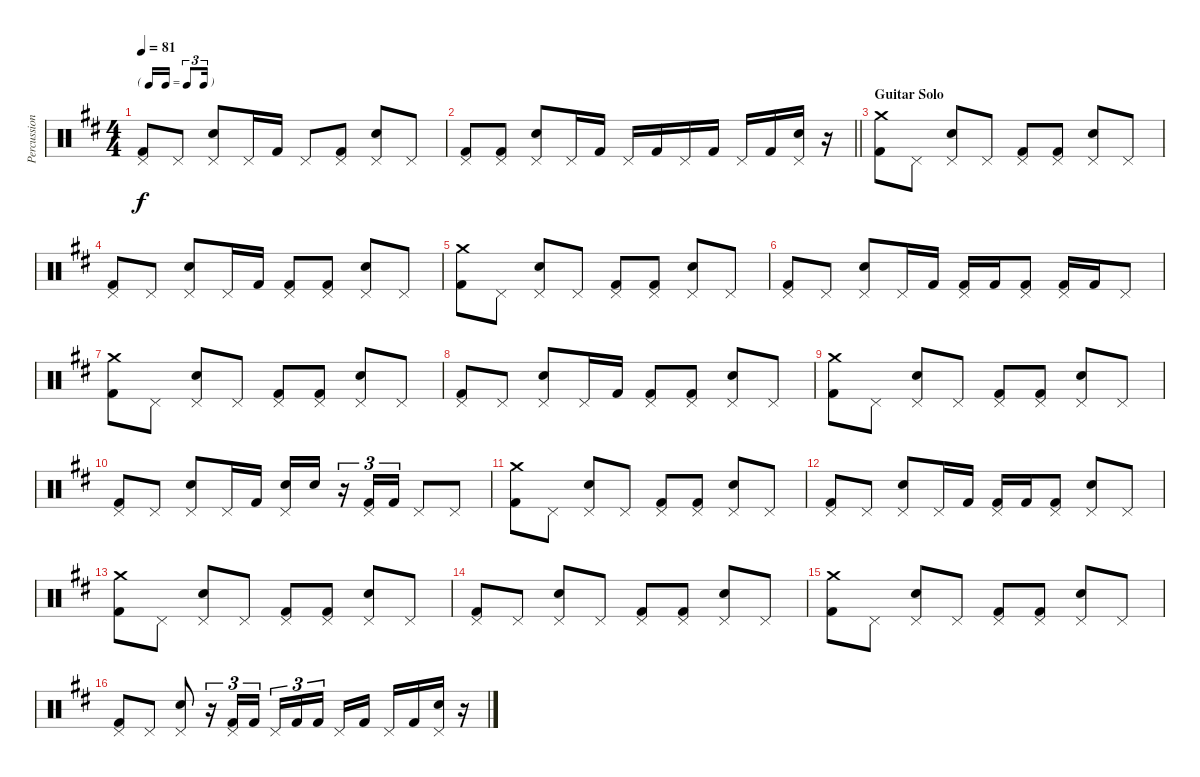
\track ("Percussion" "Percussion") {instrument percussion}
\staff {score}
\articulation defaults
\ts (4 4)
\tf triplet16th
\tempo 81
\clef neutral
\ks d
("Pedal Hi-Hat (hit)" "Kick (hit) 2").8{dy f} "Pedal Hi-Hat (hit)".8 ("Pedal Hi-Hat (hit)" "Snare (hit) 2").8 "Pedal Hi-Hat (hit)".16 "Kick (hit) 2".16 "Pedal Hi-Hat (hit)".8 ("Pedal Hi-Hat (hit)" "Kick (hit) 2").8 ("Pedal Hi-Hat (hit)" "Snare (hit) 2").8 "Pedal Hi-Hat (hit)".8 |
\barLineRight lightlight
("Pedal Hi-Hat (hit)" "Kick (hit) 2").8 ("Pedal Hi-Hat (hit)" "Kick (hit) 2").8 ("Pedal Hi-Hat (hit)" "Snare (hit) 2").8 "Pedal Hi-Hat (hit)".16 "Kick (hit) 2".16 "Pedal Hi-Hat (hit)".16 "Kick (hit) 2".16 "Pedal Hi-Hat (hit)".16 "Kick (hit) 2".16 "Pedal Hi-Hat (hit)".16 "Kick (hit) 2".16 ("Pedal Hi-Hat (hit)" "Snare (hit) 2").16 r.16 |
\section ("" "Guitar Solo")
("Crash medium (hit)" "Kick (hit) 2").8 "Pedal Hi-Hat (hit)".8 ("Pedal Hi-Hat (hit)" "Snare (hit) 2").8 "Pedal Hi-Hat (hit)".8 ("Pedal Hi-Hat (hit)" "Kick (hit) 2").8 ("Pedal Hi-Hat (hit)" "Kick (hit) 2").8 ("Pedal Hi-Hat (hit)" "Snare (hit) 2").8 "Pedal Hi-Hat (hit)".8 |
("Pedal Hi-Hat (hit)" "Kick (hit) 2").8 "Pedal Hi-Hat (hit)".8 ("Pedal Hi-Hat (hit)" "Snare (hit) 2").8 "Pedal Hi-Hat (hit)".16 "Kick (hit) 2".16 ("Pedal Hi-Hat (hit)" "Kick (hit) 2").8 ("Pedal Hi-Hat (hit)" "Kick (hit) 2").8 ("Pedal Hi-Hat (hit)" "Snare (hit) 2").8 "Pedal Hi-Hat (hit)".8 |
("Crash medium (hit)" "Kick (hit) 2").8 "Pedal Hi-Hat (hit)".8 ("Pedal Hi-Hat (hit)" "Snare (hit) 2").8 "Pedal Hi-Hat (hit)".8 ("Pedal Hi-Hat (hit)" "Kick (hit) 2").8 ("Pedal Hi-Hat (hit)" "Kick (hit) 2").8 ("Pedal Hi-Hat (hit)" "Snare (hit) 2").8 "Pedal Hi-Hat (hit)".8 |
("Pedal Hi-Hat (hit)" "Kick (hit) 2").8 "Pedal Hi-Hat (hit)".8 ("Pedal Hi-Hat (hit)" "Snare (hit) 2").8 "Pedal Hi-Hat (hit)".16 "Kick (hit) 2".16 ("Pedal Hi-Hat (hit)" "Kick (hit) 2").16 "Kick (hit) 2".16 ("Pedal Hi-Hat (hit)" "Kick (hit) 2").8 ("Pedal Hi-Hat (hit)" "Kick (hit) 2").16 "Kick (hit) 2".16 "Pedal Hi-Hat (hit)".8 |
("Crash medium (hit)" "Kick (hit) 2").8 "Pedal Hi-Hat (hit)".8 ("Pedal Hi-Hat (hit)" "Snare (hit) 2").8 "Pedal Hi-Hat (hit)".8 ("Pedal Hi-Hat (hit)" "Kick (hit) 2").8 ("Pedal Hi-Hat (hit)" "Kick (hit) 2").8 ("Pedal Hi-Hat (hit)" "Snare (hit) 2").8 "Pedal Hi-Hat (hit)".8 |
("Pedal Hi-Hat (hit)" "Kick (hit) 2").8 "Pedal Hi-Hat (hit)".8 ("Pedal Hi-Hat (hit)" "Snare (hit) 2").8 "Pedal Hi-Hat (hit)".16 "Kick (hit) 2".16 ("Pedal Hi-Hat (hit)" "Kick (hit) 2").8 ("Pedal Hi-Hat (hit)" "Kick (hit) 2").8 ("Pedal Hi-Hat (hit)" "Snare (hit) 2").8 "Pedal Hi-Hat (hit)".8 |
("Crash medium (hit)" "Kick (hit) 2").8 "Pedal Hi-Hat (hit)".8 ("Pedal Hi-Hat (hit)" "Snare (hit) 2").8 "Pedal Hi-Hat (hit)".8 ("Pedal Hi-Hat (hit)" "Kick (hit) 2").8 ("Pedal Hi-Hat (hit)" "Kick (hit) 2").8 ("Pedal Hi-Hat (hit)" "Snare (hit) 2").8 "Pedal Hi-Hat (hit)".8 |
("Pedal Hi-Hat (hit)" "Kick (hit) 2").8 "Pedal Hi-Hat (hit)".8 ("Pedal Hi-Hat (hit)" "Snare (hit) 2").8 "Pedal Hi-Hat (hit)".16 "Kick (hit) 2".16 ("Pedal Hi-Hat (hit)" "Snare (hit) 2").16 "Snare (hit) 2".16 r.16{tu (3 2)} ("Pedal Hi-Hat (hit)" "Kick (hit) 2").16{tu (3 2)} "Kick (hit) 2".16{tu (3 2)} "Pedal Hi-Hat (hit)".8 "Pedal Hi-Hat (hit)".8 |
("Crash medium (hit)" "Kick (hit) 2").8 "Pedal Hi-Hat (hit)".8 ("Pedal Hi-Hat (hit)" "Snare (hit) 2").8 "Pedal Hi-Hat (hit)".8 ("Pedal Hi-Hat (hit)" "Kick (hit) 2").8 ("Pedal Hi-Hat (hit)" "Kick (hit) 2").8 ("Pedal Hi-Hat (hit)" "Snare (hit) 2").8 "Pedal Hi-Hat (hit)".8 |
("Pedal Hi-Hat (hit)" "Kick (hit) 2").8 "Pedal Hi-Hat (hit)".8 ("Pedal Hi-Hat (hit)" "Snare (hit) 2").8 "Pedal Hi-Hat (hit)".16 "Kick (hit) 2".16 ("Pedal Hi-Hat (hit)" "Kick (hit) 2").16 "Kick (hit) 2".16 ("Pedal Hi-Hat (hit)" "Kick (hit) 2").8 ("Pedal Hi-Hat (hit)" "Snare (hit) 2").8 "Pedal Hi-Hat (hit)".8 |
("Crash medium (hit)" "Kick (hit) 2").8 "Pedal Hi-Hat (hit)".8 ("Pedal Hi-Hat (hit)" "Snare (hit) 2").8 "Pedal Hi-Hat (hit)".8 ("Pedal Hi-Hat (hit)" "Kick (hit) 2").8 ("Pedal Hi-Hat (hit)" "Kick (hit) 2").8 ("Pedal Hi-Hat (hit)" "Snare (hit) 2").8 "Pedal Hi-Hat (hit)".8 |
("Pedal Hi-Hat (hit)" "Kick (hit) 2").8 "Pedal Hi-Hat (hit)".8 ("Pedal Hi-Hat (hit)" "Snare (hit) 2").8 "Pedal Hi-Hat (hit)".8 ("Pedal Hi-Hat (hit)" "Kick (hit) 2").8 ("Pedal Hi-Hat (hit)" "Kick (hit) 2").8 ("Pedal Hi-Hat (hit)" "Snare (hit) 2").8 "Pedal Hi-Hat (hit)".8 |
("Crash medium (hit)" "Kick (hit) 2").8 "Pedal Hi-Hat (hit)".8 ("Pedal Hi-Hat (hit)" "Snare (hit) 2").8 "Pedal Hi-Hat (hit)".8 ("Pedal Hi-Hat (hit)" "Kick (hit) 2").8 ("Pedal Hi-Hat (hit)" "Kick (hit) 2").8 ("Pedal Hi-Hat (hit)" "Snare (hit) 2").8 "Pedal Hi-Hat (hit)".8 |
("Pedal Hi-Hat (hit)" "Kick (hit) 2").8 "Pedal Hi-Hat (hit)".8 ("Pedal Hi-Hat (hit)" "Snare (hit) 2").8 r.16{tu (3 2)} ("Pedal Hi-Hat (hit)" "Kick (hit) 2").16{tu (3 2)} "Kick (hit) 2".16{tu (3 2)} "Pedal Hi-Hat (hit)".16{tu (3 2)} "Kick (hit) 2".16{tu (3 2)} "Kick (hit) 2".16{tu (3 2) beam splitsecondary} "Pedal Hi-Hat (hit)".16 "Kick (hit) 2".16 "Pedal Hi-Hat (hit)".16 "Kick (hit) 2".16 ("Pedal Hi-Hat (hit)" "Snare (hit) 2").16 r.16
